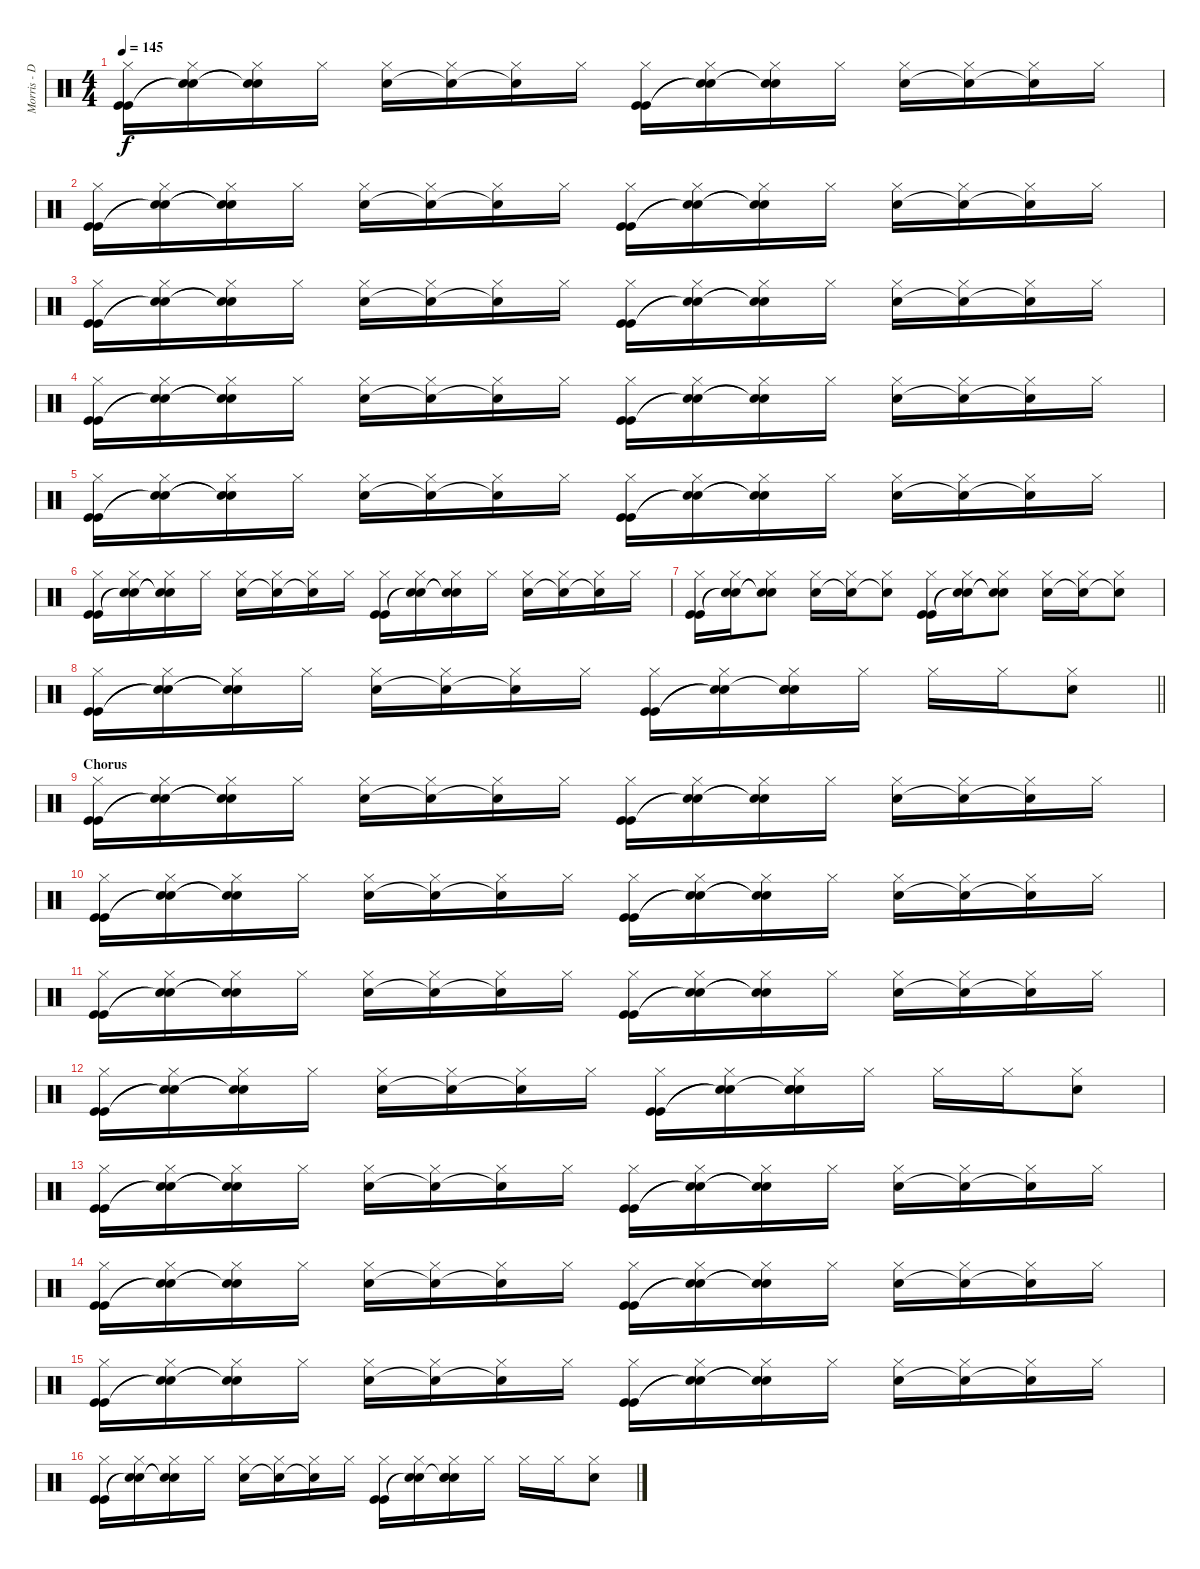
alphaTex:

\track ("Morris - Drums" "Morris - D") {instrument percussion}
\staff {score}
\articulation defaults
\ts (4 4)
\tempo 145
\clef neutral
\ks c
("Hi-Hat (closed)" "Kick (hit)" "Kick (hit)").16{dy f} ("Hi-Hat (closed)" "Snare (hit)"{t} "Snare (hit)"{t}).16 ("Hi-Hat (closed)" "Snare (hit)"{t} "Snare (hit)"{t}).16 "Hi-Hat (closed)".16 ("Hi-Hat (closed)" "Snare (hit) 2").16 ("Hi-Hat (closed)" "Snare (hit)"{t}).16 ("Hi-Hat (closed)" "Snare (hit) 2"{t}).16 "Hi-Hat (closed)".16 ("Hi-Hat (closed)" "Kick (hit)" "Kick (hit)").16 ("Hi-Hat (closed)" "Snare (hit)"{t} "Snare (hit)"{t}).16 ("Hi-Hat (closed)" "Snare (hit)"{t} "Snare (hit)"{t}).16 "Hi-Hat (closed)".16 ("Hi-Hat (closed)" "Snare (hit) 2").16 ("Hi-Hat (closed)" "Snare (hit) 2"{t}).16 ("Hi-Hat (closed)" "Snare (hit)"{t}).16 "Hi-Hat (closed)".16 |
("Hi-Hat (closed)" "Kick (hit)" "Kick (hit)").16 ("Hi-Hat (closed)" "Snare (hit)"{t} "Snare (hit)"{t}).16 ("Hi-Hat (closed)" "Snare (hit)"{t} "Snare (hit)"{t}).16 "Hi-Hat (closed)".16 ("Hi-Hat (closed)" "Snare (hit) 2").16 ("Hi-Hat (closed)" "Snare (hit)"{t}).16 ("Hi-Hat (closed)" "Snare (hit) 2"{t}).16 "Hi-Hat (closed)".16 ("Hi-Hat (closed)" "Kick (hit)" "Kick (hit)").16 ("Hi-Hat (closed)" "Snare (hit)"{t} "Snare (hit)"{t}).16 ("Hi-Hat (closed)" "Snare (hit)"{t} "Snare (hit)"{t}).16 "Hi-Hat (closed)".16 ("Hi-Hat (closed)" "Snare (hit) 2").16 ("Hi-Hat (closed)" "Snare (hit) 2"{t}).16 ("Hi-Hat (closed)" "Snare (hit)"{t}).16 "Hi-Hat (closed)".16 |
("Hi-Hat (closed)" "Kick (hit)" "Kick (hit)").16 ("Hi-Hat (closed)" "Snare (hit)"{t} "Snare (hit)"{t}).16 ("Hi-Hat (closed)" "Snare (hit)"{t} "Snare (hit)"{t}).16 "Hi-Hat (closed)".16 ("Hi-Hat (closed)" "Snare (hit) 2").16 ("Hi-Hat (closed)" "Snare (hit)"{t}).16 ("Hi-Hat (closed)" "Snare (hit) 2"{t}).16 "Hi-Hat (closed)".16 ("Hi-Hat (closed)" "Kick (hit)" "Kick (hit)").16 ("Hi-Hat (closed)" "Snare (hit)"{t} "Snare (hit)"{t}).16 ("Hi-Hat (closed)" "Snare (hit)"{t} "Snare (hit)"{t}).16 "Hi-Hat (closed)".16 ("Hi-Hat (closed)" "Snare (hit) 2").16 ("Hi-Hat (closed)" "Snare (hit) 2"{t}).16 ("Hi-Hat (closed)" "Snare (hit)"{t}).16 "Hi-Hat (closed)".16 |
("Hi-Hat (closed)" "Kick (hit)" "Kick (hit)").16 ("Hi-Hat (closed)" "Snare (hit)"{t} "Snare (hit)"{t}).16 ("Hi-Hat (closed)" "Snare (hit)"{t} "Snare (hit)"{t}).16 "Hi-Hat (closed)".16 ("Hi-Hat (closed)" "Snare (hit) 2").16 ("Hi-Hat (closed)" "Snare (hit)"{t}).16 ("Hi-Hat (closed)" "Snare (hit) 2"{t}).16 "Hi-Hat (closed)".16 ("Hi-Hat (closed)" "Kick (hit)" "Kick (hit)").16 ("Hi-Hat (closed)" "Snare (hit)"{t} "Snare (hit)"{t}).16 ("Hi-Hat (closed)" "Snare (hit)"{t} "Snare (hit)"{t}).16 "Hi-Hat (closed)".16 ("Hi-Hat (closed)" "Snare (hit) 2").16 ("Hi-Hat (closed)" "Snare (hit) 2"{t}).16 ("Hi-Hat (closed)" "Snare (hit)"{t}).16 "Hi-Hat (closed)".16 |
("Hi-Hat (closed)" "Kick (hit)" "Kick (hit)").16 ("Hi-Hat (closed)" "Snare (hit)"{t} "Snare (hit)"{t}).16 ("Hi-Hat (closed)" "Snare (hit)"{t} "Snare (hit)"{t}).16 "Hi-Hat (closed)".16 ("Hi-Hat (closed)" "Snare (hit) 2").16 ("Hi-Hat (closed)" "Snare (hit)"{t}).16 ("Hi-Hat (closed)" "Snare (hit) 2"{t}).16 "Hi-Hat (closed)".16 ("Hi-Hat (closed)" "Kick (hit)" "Kick (hit)").16 ("Hi-Hat (closed)" "Snare (hit)"{t} "Snare (hit)"{t}).16 ("Hi-Hat (closed)" "Snare (hit)"{t} "Snare (hit)"{t}).16 "Hi-Hat (closed)".16 ("Hi-Hat (closed)" "Snare (hit) 2").16 ("Hi-Hat (closed)" "Snare (hit) 2"{t}).16 ("Hi-Hat (closed)" "Snare (hit)"{t}).16 "Hi-Hat (closed)".16 |
("Hi-Hat (closed)" "Kick (hit)" "Kick (hit)").16 ("Hi-Hat (closed)" "Snare (hit)"{t} "Snare (hit)"{t}).16 ("Hi-Hat (closed)" "Snare (hit)"{t} "Snare (hit)"{t}).16 "Hi-Hat (closed)".16 ("Hi-Hat (closed)" "Snare (hit) 2").16 ("Hi-Hat (closed)" "Snare (hit)"{t}).16 ("Hi-Hat (closed)" "Snare (hit) 2"{t}).16 "Hi-Hat (closed)".16 ("Hi-Hat (closed)" "Kick (hit)" "Kick (hit)").16 ("Hi-Hat (closed)" "Snare (hit)"{t} "Snare (hit)"{t}).16 ("Hi-Hat (closed)" "Snare (hit)"{t} "Snare (hit)"{t}).16 "Hi-Hat (closed)".16 ("Hi-Hat (closed)" "Snare (hit) 2").16 ("Hi-Hat (closed)" "Snare (hit) 2"{t}).16 ("Hi-Hat (closed)" "Snare (hit)"{t}).16 "Hi-Hat (closed)".16 |
("Hi-Hat (closed)" "Kick (hit)" "Kick (hit)").16 ("Hi-Hat (closed)" "Snare (hit)"{t} "Snare (hit)"{t}).16 ("Hi-Hat (closed)" "Snare (hit)"{t} "Snare (hit)"{t}).8 ("Hi-Hat (closed)" "Snare (hit) 2").16 ("Hi-Hat (closed)" "Snare (hit)"{t}).16 ("Hi-Hat (closed)" "Snare (hit) 2"{t}).8 ("Hi-Hat (closed)" "Kick (hit)" "Kick (hit)").16 ("Hi-Hat (closed)" "Snare (hit)"{t} "Snare (hit)"{t}).16 ("Hi-Hat (closed)" "Snare (hit)"{t} "Snare (hit)"{t}).8 ("Hi-Hat (closed)" "Snare (hit) 2").16 ("Hi-Hat (closed)" "Snare (hit) 2"{t}).16 ("Hi-Hat (closed)" "Snare (hit)"{t}).8 |
\barLineRight lightlight
("Hi-Hat (closed)" "Kick (hit)" "Kick (hit)").16 ("Hi-Hat (closed)" "Snare (hit)"{t} "Snare (hit)"{t}).16 ("Hi-Hat (closed)" "Snare (hit)"{t} "Snare (hit)"{t}).16 "Hi-Hat (closed)".16 ("Hi-Hat (closed)" "Snare (hit) 2").16 ("Hi-Hat (closed)" "Snare (hit)"{t}).16 ("Hi-Hat (closed)" "Snare (hit) 2"{t}).16 "Hi-Hat (closed)".16 ("Hi-Hat (closed)" "Kick (hit)" "Kick (hit)").16 ("Hi-Hat (closed)" "Snare (hit)"{t} "Snare (hit)"{t}).16 ("Hi-Hat (closed)" "Snare (hit) 2" "Snare (hit)"{t} "Snare (hit)").16 "Hi-Hat (closed)".16 "Hi-Hat (closed)".16 "Hi-Hat (closed)".16 ("Hi-Hat (closed)" "Snare (hit) 2").8 |
\section ("" "Chorus")
("Hi-Hat (closed)" "Kick (hit)" "Kick (hit)").16 ("Hi-Hat (closed)" "Snare (hit)"{t} "Snare (hit)"{t}).16 ("Hi-Hat (closed)" "Snare (hit)"{t} "Snare (hit)"{t}).16 "Hi-Hat (closed)".16 ("Hi-Hat (closed)" "Snare (hit) 2").16 ("Hi-Hat (closed)" "Snare (hit)"{t}).16 ("Hi-Hat (closed)" "Snare (hit) 2"{t}).16 "Hi-Hat (closed)".16 ("Hi-Hat (closed)" "Kick (hit)" "Kick (hit)").16 ("Hi-Hat (closed)" "Snare (hit)"{t} "Snare (hit)"{t}).16 ("Hi-Hat (closed)" "Snare (hit)"{t} "Snare (hit)"{t}).16 "Hi-Hat (closed)".16 ("Hi-Hat (closed)" "Snare (hit) 2").16 ("Hi-Hat (closed)" "Snare (hit) 2"{t}).16 ("Hi-Hat (closed)" "Snare (hit)"{t}).16 "Hi-Hat (closed)".16 |
("Hi-Hat (closed)" "Kick (hit)" "Kick (hit)").16 ("Hi-Hat (closed)" "Snare (hit)"{t} "Snare (hit)"{t}).16 ("Hi-Hat (closed)" "Snare (hit)"{t} "Snare (hit)"{t}).16 "Hi-Hat (closed)".16 ("Hi-Hat (closed)" "Snare (hit) 2").16 ("Hi-Hat (closed)" "Snare (hit)"{t}).16 ("Hi-Hat (closed)" "Snare (hit) 2"{t}).16 "Hi-Hat (closed)".16 ("Hi-Hat (closed)" "Kick (hit)" "Kick (hit)").16 ("Hi-Hat (closed)" "Snare (hit)"{t} "Snare (hit)"{t}).16 ("Hi-Hat (closed)" "Snare (hit)"{t} "Snare (hit)"{t}).16 "Hi-Hat (closed)".16 ("Hi-Hat (closed)" "Snare (hit) 2").16 ("Hi-Hat (closed)" "Snare (hit) 2"{t}).16 ("Hi-Hat (closed)" "Snare (hit)"{t}).16 "Hi-Hat (closed)".16 |
("Hi-Hat (closed)" "Kick (hit)" "Kick (hit)").16 ("Hi-Hat (closed)" "Snare (hit)"{t} "Snare (hit)"{t}).16 ("Hi-Hat (closed)" "Snare (hit)"{t} "Snare (hit)"{t}).16 "Hi-Hat (closed)".16 ("Hi-Hat (closed)" "Snare (hit) 2").16 ("Hi-Hat (closed)" "Snare (hit)"{t}).16 ("Hi-Hat (closed)" "Snare (hit) 2"{t}).16 "Hi-Hat (closed)".16 ("Hi-Hat (closed)" "Kick (hit)" "Kick (hit)").16 ("Hi-Hat (closed)" "Snare (hit)"{t} "Snare (hit)"{t}).16 ("Hi-Hat (closed)" "Snare (hit)"{t} "Snare (hit)"{t}).16 "Hi-Hat (closed)".16 ("Hi-Hat (closed)" "Snare (hit) 2").16 ("Hi-Hat (closed)" "Snare (hit) 2"{t}).16 ("Hi-Hat (closed)" "Snare (hit)"{t}).16 "Hi-Hat (closed)".16 |
("Hi-Hat (closed)" "Kick (hit)" "Kick (hit)").16 ("Hi-Hat (closed)" "Snare (hit)"{t} "Snare (hit)"{t}).16 ("Hi-Hat (closed)" "Snare (hit)"{t} "Snare (hit)"{t}).16 "Hi-Hat (closed)".16 ("Hi-Hat (closed)" "Snare (hit) 2").16 ("Hi-Hat (closed)" "Snare (hit)"{t}).16 ("Hi-Hat (closed)" "Snare (hit) 2"{t}).16 "Hi-Hat (closed)".16 ("Hi-Hat (closed)" "Kick (hit)" "Kick (hit)").16 ("Hi-Hat (closed)" "Snare (hit)"{t} "Snare (hit)"{t}).16 ("Hi-Hat (closed)" "Snare (hit) 2" "Snare (hit)"{t} "Snare (hit)").16 "Hi-Hat (closed)".16 "Hi-Hat (closed)".16 "Hi-Hat (closed)".16 ("Hi-Hat (closed)" "Snare (hit) 2").8 |
("Hi-Hat (closed)" "Kick (hit)" "Kick (hit)").16 ("Hi-Hat (closed)" "Snare (hit)"{t} "Snare (hit)"{t}).16 ("Hi-Hat (closed)" "Snare (hit)"{t} "Snare (hit)"{t}).16 "Hi-Hat (closed)".16 ("Hi-Hat (closed)" "Snare (hit) 2").16 ("Hi-Hat (closed)" "Snare (hit)"{t}).16 ("Hi-Hat (closed)" "Snare (hit) 2"{t}).16 "Hi-Hat (closed)".16 ("Hi-Hat (closed)" "Kick (hit)" "Kick (hit)").16 ("Hi-Hat (closed)" "Snare (hit)"{t} "Snare (hit)"{t}).16 ("Hi-Hat (closed)" "Snare (hit)"{t} "Snare (hit)"{t}).16 "Hi-Hat (closed)".16 ("Hi-Hat (closed)" "Snare (hit) 2").16 ("Hi-Hat (closed)" "Snare (hit) 2"{t}).16 ("Hi-Hat (closed)" "Snare (hit)"{t}).16 "Hi-Hat (closed)".16 |
("Hi-Hat (closed)" "Kick (hit)" "Kick (hit)").16 ("Hi-Hat (closed)" "Snare (hit)"{t} "Snare (hit)"{t}).16 ("Hi-Hat (closed)" "Snare (hit)"{t} "Snare (hit)"{t}).16 "Hi-Hat (closed)".16 ("Hi-Hat (closed)" "Snare (hit) 2").16 ("Hi-Hat (closed)" "Snare (hit)"{t}).16 ("Hi-Hat (closed)" "Snare (hit) 2"{t}).16 "Hi-Hat (closed)".16 ("Hi-Hat (closed)" "Kick (hit)" "Kick (hit)").16 ("Hi-Hat (closed)" "Snare (hit)"{t} "Snare (hit)"{t}).16 ("Hi-Hat (closed)" "Snare (hit)"{t} "Snare (hit)"{t}).16 "Hi-Hat (closed)".16 ("Hi-Hat (closed)" "Snare (hit) 2").16 ("Hi-Hat (closed)" "Snare (hit) 2"{t}).16 ("Hi-Hat (closed)" "Snare (hit)"{t}).16 "Hi-Hat (closed)".16 |
("Hi-Hat (closed)" "Kick (hit)" "Kick (hit)").16 ("Hi-Hat (closed)" "Snare (hit)"{t} "Snare (hit)"{t}).16 ("Hi-Hat (closed)" "Snare (hit)"{t} "Snare (hit)"{t}).16 "Hi-Hat (closed)".16 ("Hi-Hat (closed)" "Snare (hit) 2").16 ("Hi-Hat (closed)" "Snare (hit)"{t}).16 ("Hi-Hat (closed)" "Snare (hit) 2"{t}).16 "Hi-Hat (closed)".16 ("Hi-Hat (closed)" "Kick (hit)" "Kick (hit)").16 ("Hi-Hat (closed)" "Snare (hit)"{t} "Snare (hit)"{t}).16 ("Hi-Hat (closed)" "Snare (hit)"{t} "Snare (hit)"{t}).16 "Hi-Hat (closed)".16 ("Hi-Hat (closed)" "Snare (hit) 2").16 ("Hi-Hat (closed)" "Snare (hit) 2"{t}).16 ("Hi-Hat (closed)" "Snare (hit)"{t}).16 "Hi-Hat (closed)".16 |
("Hi-Hat (closed)" "Kick (hit)" "Kick (hit)").16 ("Hi-Hat (closed)" "Snare (hit)"{t} "Snare (hit)"{t}).16 ("Hi-Hat (closed)" "Snare (hit)"{t} "Snare (hit)"{t}).16 "Hi-Hat (closed)".16 ("Hi-Hat (closed)" "Snare (hit) 2").16 ("Hi-Hat (closed)" "Snare (hit)"{t}).16 ("Hi-Hat (closed)" "Snare (hit) 2"{t}).16 "Hi-Hat (closed)".16 ("Hi-Hat (closed)" "Kick (hit)" "Kick (hit)").16 ("Hi-Hat (closed)" "Snare (hit)"{t} "Snare (hit)"{t}).16 ("Hi-Hat (closed)" "Snare (hit) 2" "Snare (hit)"{t} "Snare (hit)").16 "Hi-Hat (closed)".16 "Hi-Hat (closed)".16 "Hi-Hat (closed)".16 ("Hi-Hat (closed)" "Snare (hit) 2").8
